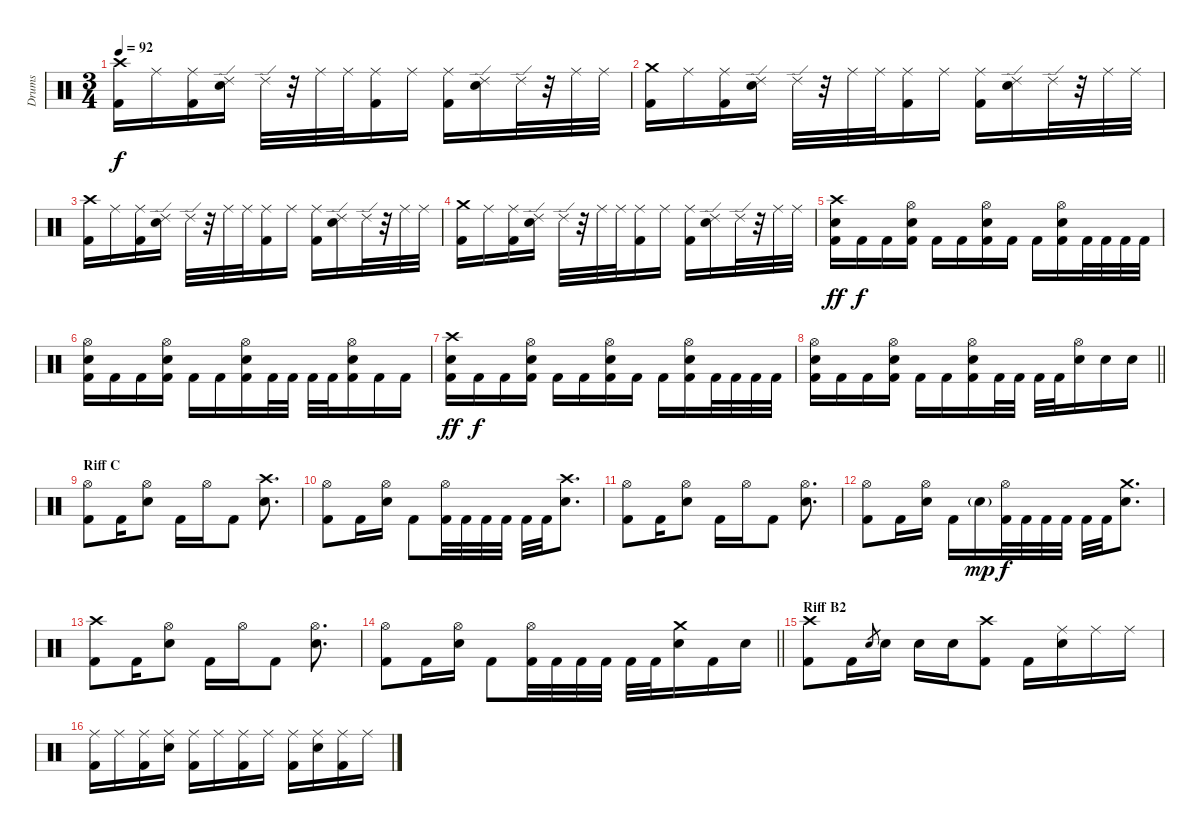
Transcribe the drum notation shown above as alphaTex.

\track ("Drums" "Drums") {instrument percussion}
\staff {score}
\articulation defaults
\ts (3 4)
\tempo 92
\clef neutral
\ks c
("Crash high (hit)" "Kick (hit) 2").16{dy f} "Ride (middle)".16 ("Ride (middle)" "Kick (hit) 2").16 ("Ride (edge) 2" "Electric Snare (hit)").16 "Ride (edge) 2".32 r.32 "Ride (middle)".32 "Ride (middle)".32 ("Ride (middle)" "Kick (hit) 2").16 "Ride (middle)".16 ("Ride (middle)" "Kick (hit) 2").16 ("Ride (edge) 2" "Electric Snare (hit)").16 "Ride (edge) 2".32 r.32 "Ride (middle)".32 "Ride (middle)".32 |
("Crash medium (hit)" "Kick (hit) 2").16 "Ride (middle)".16 ("Ride (middle)" "Kick (hit) 2").16 ("Ride (edge) 2" "Electric Snare (hit)").16 "Ride (edge) 2".32 r.32 "Ride (middle)".32 "Ride (middle)".32 ("Ride (middle)" "Kick (hit) 2").16 "Ride (middle)".16 ("Ride (middle)" "Kick (hit) 2").16 ("Ride (edge) 2" "Electric Snare (hit)").16 "Ride (edge) 2".32 r.32 "Ride (middle)".32 "Ride (middle)".32 |
("Crash high (hit)" "Kick (hit) 2").16 "Ride (middle)".16 ("Ride (middle)" "Kick (hit) 2").16 ("Ride (edge) 2" "Electric Snare (hit)").16 "Ride (edge) 2".32 r.32 "Ride (middle)".32 "Ride (middle)".32 ("Ride (middle)" "Kick (hit) 2").16 "Ride (middle)".16 ("Ride (middle)" "Kick (hit) 2").16 ("Ride (edge) 2" "Electric Snare (hit)").16 "Ride (edge) 2".32 r.32 "Ride (middle)".32 "Ride (middle)".32 |
("Crash medium (hit)" "Kick (hit) 2").16 "Ride (middle)".16 ("Ride (middle)" "Kick (hit) 2").16 ("Ride (edge) 2" "Electric Snare (hit)").16 "Ride (edge) 2".32 r.32 "Ride (middle)".32 "Ride (middle)".32 ("Ride (middle)" "Kick (hit) 2").16 "Ride (middle)".16 ("Ride (middle)" "Kick (hit) 2").16 ("Ride (edge) 2" "Electric Snare (hit)").16 "Ride (edge) 2".32 r.32 "Ride (middle)".32 "Ride (middle)".32 |
("Crash high (hit)" "Electric Snare (hit)" "Kick (hit) 2").16{dy ff} "Kick (hit) 2".16{dy f} "Kick (hit) 2".16 ("Hi-Hat (open)" "Electric Snare (hit)" "Kick (hit) 2").16 "Kick (hit) 2".16 "Kick (hit) 2".16 ("Hi-Hat (open)" "Electric Snare (hit)" "Kick (hit) 2").16 "Kick (hit) 2".16 "Kick (hit) 2".16 ("Hi-Hat (open)" "Electric Snare (hit)" "Kick (hit) 2").16 "Kick (hit) 2".32 "Kick (hit) 2".32 "Kick (hit) 2".32 "Kick (hit) 2".32 |
("Hi-Hat (open)" "Electric Snare (hit)" "Kick (hit) 2").16 "Kick (hit) 2".16 "Kick (hit) 2".16 ("Hi-Hat (open)" "Electric Snare (hit)" "Kick (hit) 2").16 "Kick (hit) 2".16 "Kick (hit) 2".16 ("Hi-Hat (open)" "Electric Snare (hit)" "Kick (hit) 2").16 "Kick (hit) 2".32 "Kick (hit) 2".32 "Kick (hit) 2".32 "Kick (hit) 2".32 ("Hi-Hat (open)" "Electric Snare (hit)" "Kick (hit) 2").16 "Kick (hit) 2".16 "Kick (hit) 2".16 |
("Crash high (hit)" "Electric Snare (hit)" "Kick (hit) 2").16{dy ff} "Kick (hit) 2".16{dy f} "Kick (hit) 2".16 ("Hi-Hat (open)" "Electric Snare (hit)" "Kick (hit) 2").16 "Kick (hit) 2".16 "Kick (hit) 2".16 ("Hi-Hat (open)" "Electric Snare (hit)" "Kick (hit) 2").16 "Kick (hit) 2".16 "Kick (hit) 2".16 ("Hi-Hat (open)" "Electric Snare (hit)" "Kick (hit) 2").16 "Kick (hit) 2".32 "Kick (hit) 2".32 "Kick (hit) 2".32 "Kick (hit) 2".32 |
\barLineRight lightlight
("Hi-Hat (open)" "Electric Snare (hit)" "Kick (hit) 2").16 "Kick (hit) 2".16 "Kick (hit) 2".16 ("Hi-Hat (open)" "Electric Snare (hit)" "Kick (hit) 2").16 "Kick (hit) 2".16 "Kick (hit) 2".16 ("Hi-Hat (open)" "Electric Snare (hit)" "Kick (hit) 2").16 "Kick (hit) 2".32 "Kick (hit) 2".32 "Kick (hit) 2".32 "Kick (hit) 2".32 ("Hi-Hat (open)" "Electric Snare (hit)").16 "Electric Snare (hit)".16 "Electric Snare (hit)".16 |
\section ("" "Riff C")
("Hi-Hat (open)" "Kick (hit) 2").8 "Kick (hit) 2".16 ("Hi-Hat (open)" "Electric Snare (hit)").8 "Kick (hit) 2".16 "Hi-Hat (open)".16 "Kick (hit) 2".8 ("Crash high (hit)" "Electric Snare (hit)").8{d} |
("Hi-Hat (open)" "Kick (hit) 2").8 "Kick (hit) 2".16 ("Hi-Hat (open)" "Electric Snare (hit)").16 "Kick (hit) 2".8 ("Hi-Hat (open)" "Kick (hit) 2").32 "Kick (hit) 2".32 "Kick (hit) 2".32 "Kick (hit) 2".32 "Kick (hit) 2".32 "Kick (hit) 2".32 ("Crash high (hit)" "Electric Snare (hit)").8{d} |
("Hi-Hat (open)" "Kick (hit) 2").8 "Kick (hit) 2".16 ("Hi-Hat (open)" "Electric Snare (hit)").8 "Kick (hit) 2".16 "Hi-Hat (open)".16 "Kick (hit) 2".8 ("Hi-Hat (open)" "Electric Snare (hit)").8{d} |
("Hi-Hat (open)" "Kick (hit) 2").8 "Kick (hit) 2".16 ("Hi-Hat (open)" "Electric Snare (hit)").16 "Kick (hit) 2".16 "Electric Snare (hit)"{g}.16{dy mp} ("Hi-Hat (open)" "Kick (hit) 2").32{dy f} "Kick (hit) 2".32 "Kick (hit) 2".32 "Kick (hit) 2".32 "Kick (hit) 2".32 "Kick (hit) 2".32 ("Crash medium (hit)" "Electric Snare (hit)").8{d} |
("Crash high (hit)" "Kick (hit) 2").8 "Kick (hit) 2".16 ("Hi-Hat (open)" "Electric Snare (hit)").8 "Kick (hit) 2".16 "Hi-Hat (open)".16 "Kick (hit) 2".8 ("Hi-Hat (open)" "Electric Snare (hit)").8{d} |
\barLineRight lightlight
("Hi-Hat (open)" "Kick (hit) 2").8 "Kick (hit) 2".16 ("Hi-Hat (open)" "Electric Snare (hit)").16 "Kick (hit) 2".8 ("Hi-Hat (open)" "Kick (hit) 2").32 "Kick (hit) 2".32 "Kick (hit) 2".32 "Kick (hit) 2".32 "Kick (hit) 2".32 "Kick (hit) 2".32 ("Crash medium (hit)" "Electric Snare (hit)").16 "Kick (hit) 2".16 "Electric Snare (hit)".16 |
\section ("" "Riff B2")
("Crash high (hit)" "Kick (hit) 2").8 "Kick (hit) 2".16 "Electric Snare (hit)".8{gr} "Electric Snare (hit)".16 "Electric Snare (hit)".16 "Electric Snare (hit)".16 ("Crash high (hit)" "Kick (hit) 2").8 "Kick (hit) 2".16 ("Ride (middle)" "Electric Snare (hit)").16 "Ride (middle)".16 "Ride (middle)".16 |
("Ride (middle)" "Kick (hit) 2").16 "Ride (middle)".16 ("Ride (middle)" "Kick (hit) 2").16 ("Ride (middle)" "Electric Snare (hit)").16 ("Ride (middle)" "Kick (hit) 2").16 "Ride (middle)".16 ("Ride (middle)" "Kick (hit) 2").16 "Ride (middle)".16 ("Ride (middle)" "Kick (hit) 2").16 ("Ride (middle)" "Electric Snare (hit)").16 ("Ride (middle)" "Kick (hit) 2").16 "Ride (middle)".16
